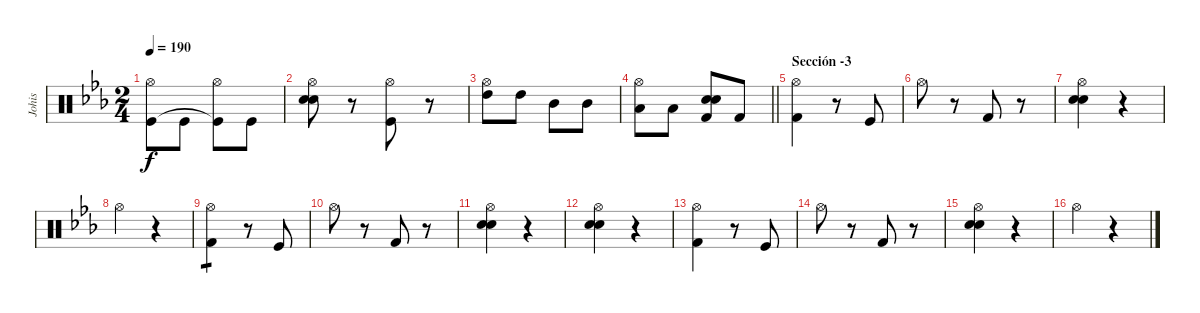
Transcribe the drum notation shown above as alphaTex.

\track ("Johis" "Johis") {instrument percussion}
\staff {score}
\articulation defaults
\ts (2 4)
\tempo 190
\clef neutral
\ks eb
("Hi-Hat (open)" "Kick (hit)").8{dy f} "Kick (hit)".8 ("Hi-Hat (open)" "Kick (hit)"{t}).8 "Kick (hit)".8 |
("Hi-Hat (open)" "Snare (hit) 2" "Electric Snare (hit)").8 r.8 ("Hi-Hat (open)" "Kick (hit)").8 r.8 |
("Hi-Hat (open)" "High Tom (hit)").8 "High Tom (hit)".8 "Mid Tom (hit)".8 "Mid Tom (hit)".8 |
\barLineRight lightlight
("Hi-Hat (open)" "Low Tom (hit)").8 "Low Tom (hit)".8 ("Snare (hit) 2" "Kick (hit) 2" "Electric Snare (hit)").8 "Kick (hit) 2".8 |
\section ("" "Sección -3")
("Hi-Hat (open)" "Kick (hit) 2").4 r.8 "Kick (hit)".8 |
"Hi-Hat (open)".8 r.8 "Kick (hit) 2".8 r.8 |
("Hi-Hat (open)" "Snare (hit) 2" "Electric Snare (hit)").4 r.4 |
"Hi-Hat (open)".4 r.4 |
("Hi-Hat (open)" "Kick (hit) 2").4{tp 1} r.8 "Kick (hit)".8 |
"Hi-Hat (open)".8 r.8 "Kick (hit) 2".8 r.8 |
("Hi-Hat (open)" "Snare (hit) 2" "Electric Snare (hit)").4 r.4 |
("Hi-Hat (open)" "Snare (hit) 2" "Electric Snare (hit)").4 r.4 |
("Hi-Hat (open)" "Kick (hit) 2").4 r.8 "Kick (hit)".8 |
"Hi-Hat (open)".8 r.8 "Kick (hit) 2".8 r.8 |
("Hi-Hat (open)" "Snare (hit) 2" "Electric Snare (hit)").4 r.4 |
"Hi-Hat (open)".4 r.4
